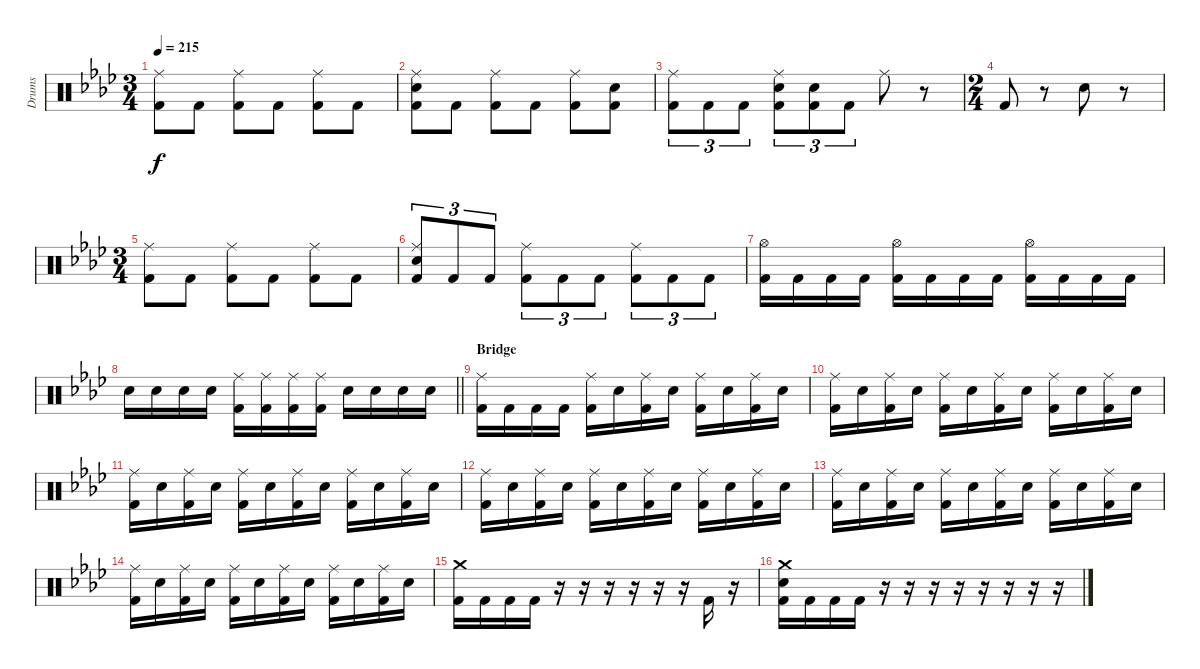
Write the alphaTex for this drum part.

\bracketExtendMode groupsimilarinstruments
\otherSystemsTrackNameOrientation horizontal
\track ("Guyot Begin-Benoit" "Drums") {instrument percussion}
\staff {score}
\articulation defaults
\ts (3 4)
\tempo 215
\clef neutral
\ks ab
("Ride (middle)"{acc forcenatural} "Kick (hit) 2"{acc forcenatural}).8{dy f beam Down} "Kick (hit) 2"{acc forcenatural}.8{beam Down} ("Ride (middle)"{acc forcenatural} "Kick (hit) 2"{acc forcenatural}).8{beam Down} "Kick (hit) 2"{acc forcenatural}.8{beam Down} ("Ride (middle)"{acc forcenatural} "Kick (hit) 2"{acc forcenatural}).8{beam Down} "Kick (hit) 2"{acc forcenatural}.8{beam Down} |
("Ride (middle)"{acc forcenatural} "Snare (hit) 2"{acc forcenatural} "Kick (hit) 2"{acc forcenatural}).8{beam Down} "Kick (hit) 2"{acc forcenatural}.8{beam Down} ("Ride (middle)"{acc forcenatural} "Kick (hit) 2"{acc forcenatural}).8{beam Down} "Kick (hit) 2"{acc forcenatural}.8{beam Down} ("Ride (middle)"{acc forcenatural} "Kick (hit) 2"{acc forcenatural}).8{beam Down} ("Snare (hit) 2"{acc forcenatural} "Kick (hit) 2"{acc forcenatural}).8{beam Down} |
("Ride (middle)"{acc forcenatural} "Kick (hit) 2"{acc forcenatural}).8{tu (3 2) beam Down} "Kick (hit) 2"{acc forcenatural}.8{tu (3 2) beam Down} "Kick (hit) 2"{acc forcenatural}.8{tu (3 2) beam Down} ("Ride (middle)"{acc forcenatural} "Snare (hit) 2"{acc forcenatural} "Kick (hit) 2"{acc forcenatural}).8{tu (3 2) beam Down} ("Snare (hit) 2"{acc forcenatural} "Kick (hit) 2"{acc forcenatural}).8{tu (3 2) beam Down} "Kick (hit) 2"{acc forcenatural}.8{tu (3 2) beam Down} "Ride (middle)"{acc forcenatural}.8{beam Down} r.8{beam Down} |
\ts (2 4)
\beaming (8 2 2 2 2)
"Kick (hit) 2"{acc forcenatural}.8{beam Up} r.8{beam Up} "Snare (hit) 2"{acc forcenatural}.8{beam Down} r.8{beam Down} |
\ts (3 4)
\beaming (8 2 2 2 2)
("Ride (middle)"{acc forcenatural} "Kick (hit) 2"{acc forcenatural}).8{beam Down} "Kick (hit) 2"{acc forcenatural}.8{beam Down} ("Ride (middle)"{acc forcenatural} "Kick (hit) 2"{acc forcenatural}).8{beam Down} "Kick (hit) 2"{acc forcenatural}.8{beam Down} ("Ride (middle)"{acc forcenatural} "Kick (hit) 2"{acc forcenatural}).8{beam Down} "Kick (hit) 2"{acc forcenatural}.8{beam Down} |
("Ride (middle)"{acc forcenatural} "Snare (hit) 2"{acc forcenatural} "Kick (hit) 2"{acc forcenatural}).8{tu (3 2) beam Up} "Kick (hit) 2"{acc forcenatural}.8{tu (3 2) beam Up} "Kick (hit) 2"{acc forcenatural}.8{tu (3 2) beam Up} ("Ride (middle)"{acc forcenatural} "Kick (hit) 2"{acc forcenatural}).8{tu (3 2) beam Down} "Kick (hit) 2"{acc forcenatural}.8{tu (3 2) beam Down} "Kick (hit) 2"{acc forcenatural}.8{tu (3 2) beam Down} ("Ride (middle)"{acc forcenatural} "Kick (hit) 2"{acc forcenatural}).8{tu (3 2) beam Down} "Kick (hit) 2"{acc forcenatural}.8{tu (3 2) beam Down} "Kick (hit) 2"{acc forcenatural}.8{tu (3 2) beam Down} |
("Hi-Hat (open)"{acc forcenatural} "Kick (hit) 2"{acc forcenatural}).16{beam Down} "Kick (hit) 2"{acc forcenatural}.16{beam Down} "Kick (hit) 2"{acc forcenatural}.16{beam Down} "Kick (hit) 2"{acc forcenatural}.16{beam Down} ("Hi-Hat (open)"{acc forcenatural} "Kick (hit) 2"{acc forcenatural}).16{beam Down} "Kick (hit) 2"{acc forcenatural}.16{beam Down} "Kick (hit) 2"{acc forcenatural}.16{beam Down} "Kick (hit) 2"{acc forcenatural}.16{beam Down} ("Hi-Hat (open)"{acc forcenatural} "Kick (hit) 2"{acc forcenatural}).16{beam Down} "Kick (hit) 2"{acc forcenatural}.16{beam Down} "Kick (hit) 2"{acc forcenatural}.16{beam Down} "Kick (hit) 2"{acc forcenatural}.16{beam Down} |
\barLineRight lightlight "Snare (hit) 2"{acc forcenatural}.16{beam Down} "Snare (hit) 2"{acc forcenatural}.16{beam Down} "Snare (hit) 2"{acc forcenatural}.16{beam Down} "Snare (hit) 2"{acc forcenatural}.16{beam Down}
("Ride (middle)"{acc forcenatural} "Kick (hit) 2"{acc forcenatural}).16{beam Down} ("Ride (middle)"{acc forcenatural} "Kick (hit) 2"{acc forcenatural}).16{beam Down} ("Ride (middle)"{acc forcenatural} "Kick (hit) 2"{acc forcenatural}).16{beam Down} ("Ride (middle)"{acc forcenatural} "Kick (hit) 2"{acc forcenatural}).16{beam Down} "Snare (hit) 2"{acc forcenatural}.16{beam Down} "Snare (hit) 2"{acc forcenatural}.16{beam Down} "Snare (hit) 2"{acc forcenatural}.16{beam Down} "Snare (hit) 2"{acc forcenatural}.16{beam Down} |
\section ("" "Bridge")
("Ride (middle)"{acc forcenatural} "Kick (hit) 2"{acc forcenatural}).16{beam Down} "Kick (hit) 2"{acc forcenatural}.16{beam Down} "Kick (hit) 2"{acc forcenatural}.16{beam Down} "Kick (hit) 2"{acc forcenatural}.16{beam Down} ("Ride (middle)"{acc forcenatural} "Kick (hit) 2"{acc forcenatural}).16{beam Down} "Snare (hit) 2"{acc forcenatural}.16{beam Down} ("Ride (middle)"{acc forcenatural} "Kick (hit) 2"{acc forcenatural}).16{beam Down} "Snare (hit) 2"{acc forcenatural}.16{beam Down} ("Ride (middle)"{acc forcenatural} "Kick (hit) 2"{acc forcenatural}).16{beam Down} "Snare (hit) 2"{acc forcenatural}.16{beam Down} ("Ride (middle)"{acc forcenatural} "Kick (hit) 2"{acc forcenatural}).16{beam Down} "Snare (hit) 2"{acc forcenatural}.16{beam Down} |
("Ride (middle)"{acc forcenatural} "Kick (hit) 2"{acc forcenatural}).16{beam Down} "Snare (hit) 2"{acc forcenatural}.16{beam Down} ("Ride (middle)"{acc forcenatural} "Kick (hit) 2"{acc forcenatural}).16{beam Down} "Snare (hit) 2"{acc forcenatural}.16{beam Down} ("Ride (middle)"{acc forcenatural} "Kick (hit) 2"{acc forcenatural}).16{beam Down} "Snare (hit) 2"{acc forcenatural}.16{beam Down} ("Ride (middle)"{acc forcenatural} "Kick (hit) 2"{acc forcenatural}).16{beam Down} "Snare (hit) 2"{acc forcenatural}.16{beam Down} ("Ride (middle)"{acc forcenatural} "Kick (hit) 2"{acc forcenatural}).16{beam Down} "Snare (hit) 2"{acc forcenatural}.16{beam Down} ("Ride (middle)"{acc forcenatural} "Kick (hit) 2"{acc forcenatural}).16{beam Down} "Snare (hit) 2"{acc forcenatural}.16{beam Down} |
("Ride (middle)"{acc forcenatural} "Kick (hit) 2"{acc forcenatural}).16{beam Down} "Snare (hit) 2"{acc forcenatural}.16{beam Down} ("Ride (middle)"{acc forcenatural} "Kick (hit) 2"{acc forcenatural}).16{beam Down} "Snare (hit) 2"{acc forcenatural}.16{beam Down} ("Ride (middle)"{acc forcenatural} "Kick (hit) 2"{acc forcenatural}).16{beam Down} "Snare (hit) 2"{acc forcenatural}.16{beam Down} ("Ride (middle)"{acc forcenatural} "Kick (hit) 2"{acc forcenatural}).16{beam Down} "Snare (hit) 2"{acc forcenatural}.16{beam Down} ("Ride (middle)"{acc forcenatural} "Kick (hit) 2"{acc forcenatural}).16{beam Down} "Snare (hit) 2"{acc forcenatural}.16{beam Down} ("Ride (middle)"{acc forcenatural} "Kick (hit) 2"{acc forcenatural}).16{beam Down} "Snare (hit) 2"{acc forcenatural}.16{beam Down} |
("Ride (middle)"{acc forcenatural} "Kick (hit) 2"{acc forcenatural}).16{beam Down} "Snare (hit) 2"{acc forcenatural}.16{beam Down} ("Ride (middle)"{acc forcenatural} "Kick (hit) 2"{acc forcenatural}).16{beam Down} "Snare (hit) 2"{acc forcenatural}.16{beam Down} ("Ride (middle)"{acc forcenatural} "Kick (hit) 2"{acc forcenatural}).16{beam Down} "Snare (hit) 2"{acc forcenatural}.16{beam Down} ("Ride (middle)"{acc forcenatural} "Kick (hit) 2"{acc forcenatural}).16{beam Down} "Snare (hit) 2"{acc forcenatural}.16{beam Down} ("Ride (middle)"{acc forcenatural} "Kick (hit) 2"{acc forcenatural}).16{beam Down} "Snare (hit) 2"{acc forcenatural}.16{beam Down} ("Ride (middle)"{acc forcenatural} "Kick (hit) 2"{acc forcenatural}).16{beam Down} "Snare (hit) 2"{acc forcenatural}.16{beam Down} |
("Ride (middle)"{acc forcenatural} "Kick (hit) 2"{acc forcenatural}).16{beam Down} "Snare (hit) 2"{acc forcenatural}.16{beam Down} ("Ride (middle)"{acc forcenatural} "Kick (hit) 2"{acc forcenatural}).16{beam Down} "Snare (hit) 2"{acc forcenatural}.16{beam Down} ("Ride (middle)"{acc forcenatural} "Kick (hit) 2"{acc forcenatural}).16{beam Down} "Snare (hit) 2"{acc forcenatural}.16{beam Down} ("Ride (middle)"{acc forcenatural} "Kick (hit) 2"{acc forcenatural}).16{beam Down} "Snare (hit) 2"{acc forcenatural}.16{beam Down} ("Ride (middle)"{acc forcenatural} "Kick (hit) 2"{acc forcenatural}).16{beam Down} "Snare (hit) 2"{acc forcenatural}.16{beam Down} ("Ride (middle)"{acc forcenatural} "Kick (hit) 2"{acc forcenatural}).16{beam Down} "Snare (hit) 2"{acc forcenatural}.16{beam Down} |
("Ride (middle)"{acc forcenatural} "Kick (hit) 2"{acc forcenatural}).16{beam Down} "Snare (hit) 2"{acc forcenatural}.16{beam Down} ("Ride (middle)"{acc forcenatural} "Kick (hit) 2"{acc forcenatural}).16{beam Down} "Snare (hit) 2"{acc forcenatural}.16{beam Down} ("Ride (middle)"{acc forcenatural} "Kick (hit) 2"{acc forcenatural}).16{beam Down} "Snare (hit) 2"{acc forcenatural}.16{beam Down} ("Ride (middle)"{acc forcenatural} "Kick (hit) 2"{acc forcenatural}).16{beam Down} "Snare (hit) 2"{acc forcenatural}.16{beam Down} ("Ride (middle)"{acc forcenatural} "Kick (hit) 2"{acc forcenatural}).16{beam Down} "Snare (hit) 2"{acc forcenatural}.16{beam Down} ("Ride (middle)"{acc forcenatural} "Kick (hit) 2"{acc forcenatural}).16{beam Down} "Snare (hit) 2"{acc forcenatural}.16{beam Down} |
("Crash medium (hit)"{acc forcenatural} "Kick (hit) 2"{acc forcenatural}).16{beam Down} "Kick (hit) 2"{acc forcenatural}.16{beam Down} "Kick (hit) 2"{acc forcenatural}.16{beam Down} "Kick (hit) 2"{acc forcenatural}.16{beam Down} r.16{beam Down} r.16{beam Down} r.16{beam Down} r.16{beam Down} r.16{beam Down} r.16{beam Down} "Kick (hit) 2"{acc forcenatural}.16{beam Up} r.16{beam Up} |
("Crash medium (hit)"{acc forcenatural} "Snare (hit) 2"{acc forcenatural} "Kick (hit) 2"{acc forcenatural}).16{beam Down} "Kick (hit) 2"{acc forcenatural}.16{beam Down} "Kick (hit) 2"{acc forcenatural}.16{beam Down} "Kick (hit) 2"{acc forcenatural}.16{beam Down} r.16{beam Down} r.16{beam Down} r.16{beam Down} r.16{beam Down} r.16{beam Down} r.16{beam Down} r.16{beam Down} r.16{beam Down}
